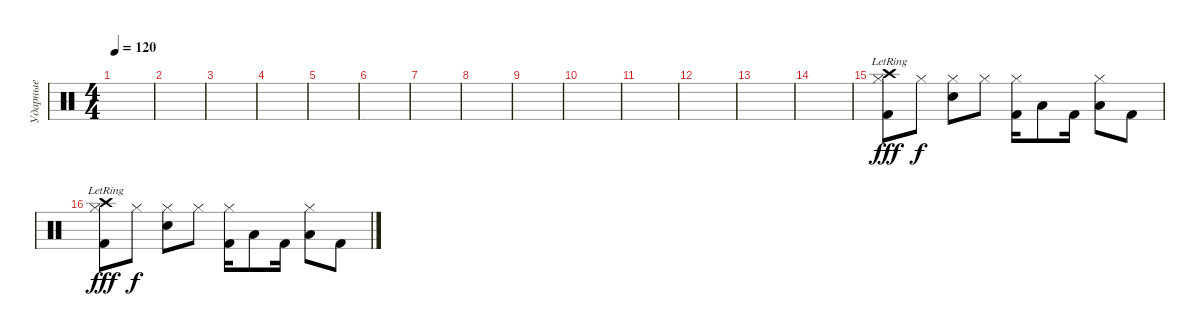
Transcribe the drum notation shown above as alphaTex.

\track ("Ударные" "Ударные") {instrument percussion}
\staff {score}
\articulation defaults
\ts (4 4)
\tempo 120
\clef neutral
\ks c
|
|
|
|
|
|
|
|
|
|
|
|
|
|
("Hi-Hat (closed)" "Kick (hit) 2" "Crash high (hit)"{lr}).8{dy fff} "Hi-Hat (closed)".8{dy f} ("Hi-Hat (closed)" "Snare (hit) 2").8 "Hi-Hat (closed)".8 ("Kick (hit) 2" "Hi-Hat (closed)").16 "Low Tom (hit)".8 "Kick (hit) 2".16 ("Low Tom (hit)" "Hi-Hat (closed)").8 "Kick (hit) 2".8 |
("Hi-Hat (closed)" "Kick (hit) 2" "Crash high (hit)"{lr}).8{dy fff} "Hi-Hat (closed)".8{dy f} ("Hi-Hat (closed)" "Snare (hit) 2").8 "Hi-Hat (closed)".8 ("Kick (hit) 2" "Hi-Hat (closed)").16 "Low Tom (hit)".8 "Kick (hit) 2".16 ("Low Tom (hit)" "Hi-Hat (closed)").8 "Kick (hit) 2".8
